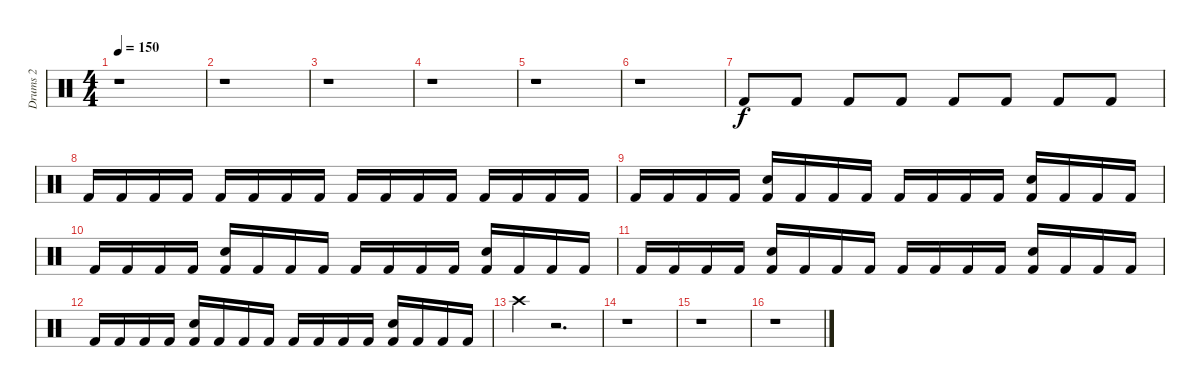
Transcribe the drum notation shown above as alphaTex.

\track ("Drums 2" "Drums 2") {instrument percussion}
\staff {score}
\articulation defaults
\ts (4 4)
\tempo 150
\clef neutral
\ks c
r.1{dy f} |
r.1 |
r.1 |
r.1 |
r.1 |
r.1 |
"Kick (hit) 2".8 "Kick (hit) 2".8 "Kick (hit) 2".8 "Kick (hit) 2".8 "Kick (hit) 2".8 "Kick (hit) 2".8 "Kick (hit) 2".8 "Kick (hit) 2".8 |
"Kick (hit) 2".16 "Kick (hit) 2".16 "Kick (hit) 2".16 "Kick (hit) 2".16 "Kick (hit) 2".16 "Kick (hit) 2".16 "Kick (hit) 2".16 "Kick (hit) 2".16 "Kick (hit) 2".16 "Kick (hit) 2".16 "Kick (hit) 2".16 "Kick (hit) 2".16 "Kick (hit) 2".16 "Kick (hit) 2".16 "Kick (hit) 2".16 "Kick (hit) 2".16 |
"Kick (hit) 2".16 "Kick (hit) 2".16 "Kick (hit) 2".16 "Kick (hit) 2".16 ("Snare (hit) 2" "Kick (hit) 2").16 "Kick (hit) 2".16 "Kick (hit) 2".16 "Kick (hit) 2".16 "Kick (hit) 2".16 "Kick (hit) 2".16 "Kick (hit) 2".16 "Kick (hit) 2".16 ("Snare (hit) 2" "Kick (hit) 2").16 "Kick (hit) 2".16 "Kick (hit) 2".16 "Kick (hit) 2".16 |
"Kick (hit) 2".16 "Kick (hit) 2".16 "Kick (hit) 2".16 "Kick (hit) 2".16 ("Snare (hit) 2" "Kick (hit) 2").16 "Kick (hit) 2".16 "Kick (hit) 2".16 "Kick (hit) 2".16 "Kick (hit) 2".16 "Kick (hit) 2".16 "Kick (hit) 2".16 "Kick (hit) 2".16 ("Snare (hit) 2" "Kick (hit) 2").16 "Kick (hit) 2".16 "Kick (hit) 2".16 "Kick (hit) 2".16 |
"Kick (hit) 2".16 "Kick (hit) 2".16 "Kick (hit) 2".16 "Kick (hit) 2".16 ("Snare (hit) 2" "Kick (hit) 2").16 "Kick (hit) 2".16 "Kick (hit) 2".16 "Kick (hit) 2".16 "Kick (hit) 2".16 "Kick (hit) 2".16 "Kick (hit) 2".16 "Kick (hit) 2".16 ("Snare (hit) 2" "Kick (hit) 2").16 "Kick (hit) 2".16 "Kick (hit) 2".16 "Kick (hit) 2".16 |
"Kick (hit) 2".16 "Kick (hit) 2".16 "Kick (hit) 2".16 "Kick (hit) 2".16 ("Snare (hit) 2" "Kick (hit) 2").16 "Kick (hit) 2".16 "Kick (hit) 2".16 "Kick (hit) 2".16 "Kick (hit) 2".16 "Kick (hit) 2".16 "Kick (hit) 2".16 "Kick (hit) 2".16 ("Snare (hit) 2" "Kick (hit) 2").16 "Kick (hit) 2".16 "Kick (hit) 2".16 "Kick (hit) 2".16 |
"Crash high (hit)".4 r.2{d} |
r.1 |
r.1 |
r.1
